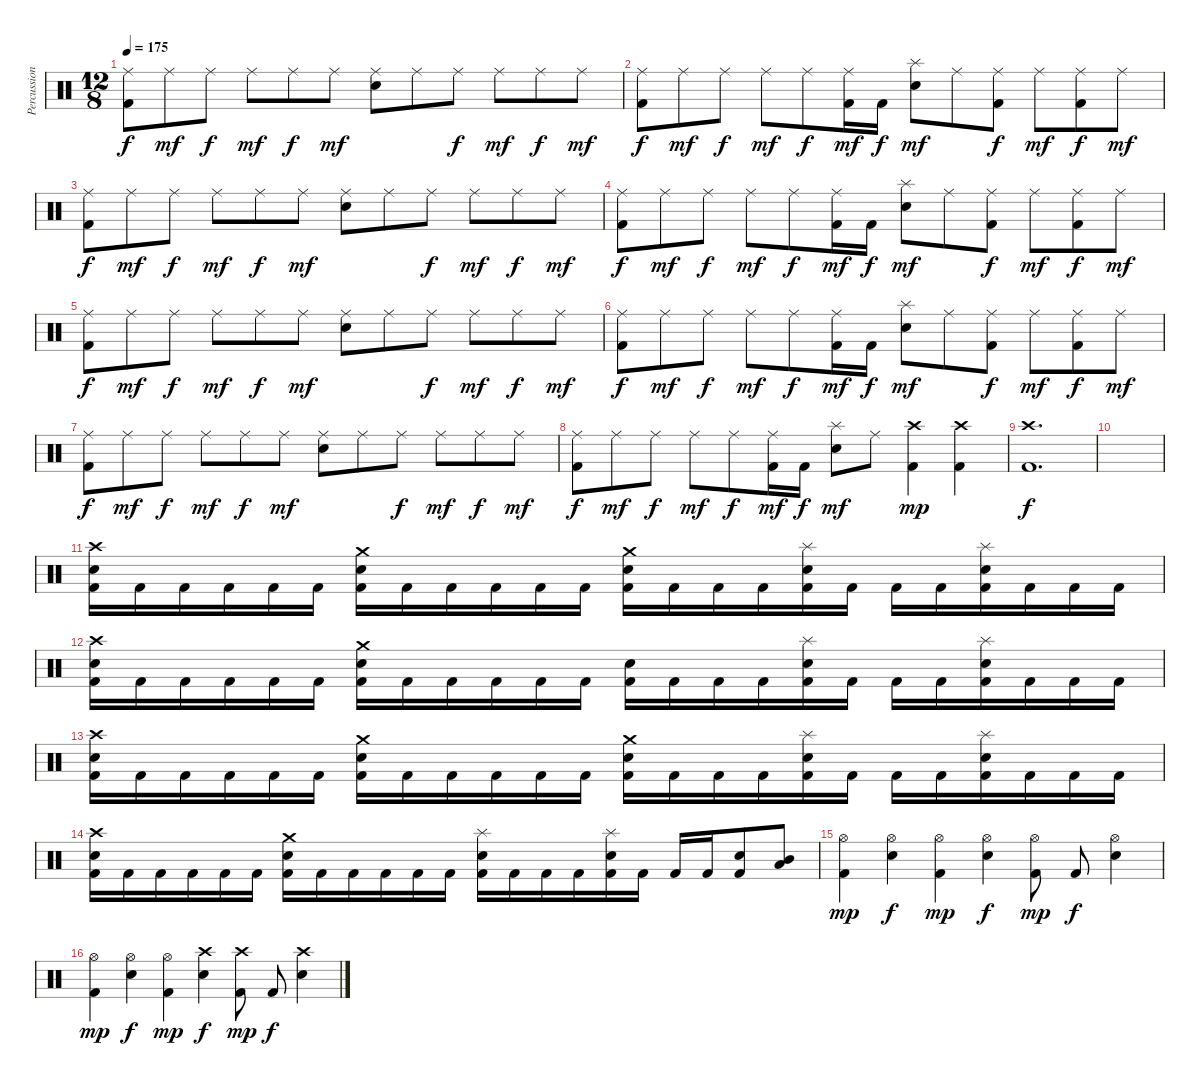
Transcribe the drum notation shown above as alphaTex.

\track ("Percussion" "Percussion") {instrument percussion}
\staff {score}
\articulation defaults
\ts (12 8)
\tempo 175
\clef neutral
\ks c
("Ride (middle)" "Kick (hit) 2").8{dy f} "Ride (middle)".8{dy mf} "Ride (middle)".8{dy f} "Ride (middle)".8{dy mf} "Ride (middle)".8{dy f} "Ride (middle)".8{dy mf} ("Ride (middle)" "Electric Snare (hit)").8 "Ride (middle)".8 "Ride (middle)".8{dy f} "Ride (middle)".8{dy mf} "Ride (middle)".8{dy f} "Ride (middle)".8{dy mf} |
("Ride (middle)" "Kick (hit) 2").8{dy f} "Ride (middle)".8{dy mf} "Ride (middle)".8{dy f} "Ride (middle)".8{dy mf} "Ride (middle)".8{dy f} ("Ride (middle)" "Kick (hit) 2").16{dy mf} "Kick (hit) 2".16{dy f} ("Splash (hit)" "Electric Snare (hit)").8{dy mf} "Ride (middle)".8 ("Ride (middle)" "Kick (hit) 2").8{dy f} "Ride (middle)".8{dy mf} ("Ride (middle)" "Kick (hit) 2").8{dy f} "Ride (middle)".8{dy mf} |
("Ride (middle)" "Kick (hit) 2").8{dy f} "Ride (middle)".8{dy mf} "Ride (middle)".8{dy f} "Ride (middle)".8{dy mf} "Ride (middle)".8{dy f} "Ride (middle)".8{dy mf} ("Ride (middle)" "Electric Snare (hit)").8 "Ride (middle)".8 "Ride (middle)".8{dy f} "Ride (middle)".8{dy mf} "Ride (middle)".8{dy f} "Ride (middle)".8{dy mf} |
("Ride (middle)" "Kick (hit) 2").8{dy f} "Ride (middle)".8{dy mf} "Ride (middle)".8{dy f} "Ride (middle)".8{dy mf} "Ride (middle)".8{dy f} ("Ride (middle)" "Kick (hit) 2").16{dy mf} "Kick (hit) 2".16{dy f} ("Splash (hit)" "Electric Snare (hit)").8{dy mf} "Ride (middle)".8 ("Ride (middle)" "Kick (hit) 2").8{dy f} "Ride (middle)".8{dy mf} ("Ride (middle)" "Kick (hit) 2").8{dy f} "Ride (middle)".8{dy mf} |
("Ride (middle)" "Kick (hit) 2").8{dy f} "Ride (middle)".8{dy mf} "Ride (middle)".8{dy f} "Ride (middle)".8{dy mf} "Ride (middle)".8{dy f} "Ride (middle)".8{dy mf} ("Ride (middle)" "Electric Snare (hit)").8 "Ride (middle)".8 "Ride (middle)".8{dy f} "Ride (middle)".8{dy mf} "Ride (middle)".8{dy f} "Ride (middle)".8{dy mf} |
("Ride (middle)" "Kick (hit) 2").8{dy f} "Ride (middle)".8{dy mf} "Ride (middle)".8{dy f} "Ride (middle)".8{dy mf} "Ride (middle)".8{dy f} ("Ride (middle)" "Kick (hit) 2").16{dy mf} "Kick (hit) 2".16{dy f} ("Splash (hit)" "Electric Snare (hit)").8{dy mf} "Ride (middle)".8 ("Ride (middle)" "Kick (hit) 2").8{dy f} "Ride (middle)".8{dy mf} ("Ride (middle)" "Kick (hit) 2").8{dy f} "Ride (middle)".8{dy mf} |
("Ride (middle)" "Kick (hit) 2").8{dy f} "Ride (middle)".8{dy mf} "Ride (middle)".8{dy f} "Ride (middle)".8{dy mf} "Ride (middle)".8{dy f} "Ride (middle)".8{dy mf} ("Ride (middle)" "Electric Snare (hit)").8 "Ride (middle)".8 "Ride (middle)".8{dy f} "Ride (middle)".8{dy mf} "Ride (middle)".8{dy f} "Ride (middle)".8{dy mf} |
("Ride (middle)" "Kick (hit) 2").8{dy f} "Ride (middle)".8{dy mf} "Ride (middle)".8{dy f} "Ride (middle)".8{dy mf} "Ride (middle)".8{dy f} ("Ride (middle)" "Kick (hit) 2").16{dy mf} "Kick (hit) 2".16{dy f} ("Splash (hit)" "Electric Snare (hit)").8{dy mf} "Ride (middle)".8 ("Crash high (hit)" "Kick (hit) 2").4{dy mp} ("Crash high (hit)" "Kick (hit) 2").4 |
("Crash high (hit)" "Kick (hit) 2").1{d dy f} |
|
("Crash high (hit)" "Electric Snare (hit)" "Kick (hit) 2").16 "Kick (hit) 2".16 "Kick (hit) 2".16 "Kick (hit) 2".16 "Kick (hit) 2".16 "Kick (hit) 2".16 ("Crash medium (hit)" "Electric Snare (hit)" "Kick (hit) 2").16 "Kick (hit) 2".16 "Kick (hit) 2".16 "Kick (hit) 2".16 "Kick (hit) 2".16 "Kick (hit) 2".16 ("Crash medium (hit)" "Electric Snare (hit)" "Kick (hit) 2").16 "Kick (hit) 2".16 "Kick (hit) 2".16 "Kick (hit) 2".16 ("Splash (hit)" "Electric Snare (hit)" "Kick (hit) 2").16 "Kick (hit) 2".16 "Kick (hit) 2".16 "Kick (hit) 2".16 ("Splash (hit)" "Electric Snare (hit)" "Kick (hit) 2").16 "Kick (hit) 2".16 "Kick (hit) 2".16 "Kick (hit) 2".16 |
("Crash high (hit)" "Electric Snare (hit)" "Kick (hit) 2").16 "Kick (hit) 2".16 "Kick (hit) 2".16 "Kick (hit) 2".16 "Kick (hit) 2".16 "Kick (hit) 2".16 ("Crash medium (hit)" "Electric Snare (hit)" "Kick (hit) 2").16 "Kick (hit) 2".16 "Kick (hit) 2".16 "Kick (hit) 2".16 "Kick (hit) 2".16 "Kick (hit) 2".16 ("Electric Snare (hit)" "Kick (hit) 2").16 "Kick (hit) 2".16 "Kick (hit) 2".16 "Kick (hit) 2".16 ("Splash (hit)" "Electric Snare (hit)" "Kick (hit) 2").16 "Kick (hit) 2".16 "Kick (hit) 2".16 "Kick (hit) 2".16 ("Splash (hit)" "Electric Snare (hit)" "Kick (hit) 2").16 "Kick (hit) 2".16 "Kick (hit) 2".16 "Kick (hit) 2".16 |
("Crash high (hit)" "Electric Snare (hit)" "Kick (hit) 2").16 "Kick (hit) 2".16 "Kick (hit) 2".16 "Kick (hit) 2".16 "Kick (hit) 2".16 "Kick (hit) 2".16 ("Crash medium (hit)" "Electric Snare (hit)" "Kick (hit) 2").16 "Kick (hit) 2".16 "Kick (hit) 2".16 "Kick (hit) 2".16 "Kick (hit) 2".16 "Kick (hit) 2".16 ("Crash medium (hit)" "Electric Snare (hit)" "Kick (hit) 2").16 "Kick (hit) 2".16 "Kick (hit) 2".16 "Kick (hit) 2".16 ("Splash (hit)" "Electric Snare (hit)" "Kick (hit) 2").16 "Kick (hit) 2".16 "Kick (hit) 2".16 "Kick (hit) 2".16 ("Splash (hit)" "Electric Snare (hit)" "Kick (hit) 2").16 "Kick (hit) 2".16 "Kick (hit) 2".16 "Kick (hit) 2".16 |
("Crash high (hit)" "Electric Snare (hit)" "Kick (hit) 2").16 "Kick (hit) 2".16 "Kick (hit) 2".16 "Kick (hit) 2".16 "Kick (hit) 2".16 "Kick (hit) 2".16 ("Crash medium (hit)" "Electric Snare (hit)" "Kick (hit) 2").16 "Kick (hit) 2".16 "Kick (hit) 2".16 "Kick (hit) 2".16 "Kick (hit) 2".16 "Kick (hit) 2".16 ("Splash (hit)" "Electric Snare (hit)" "Kick (hit) 2").16 "Kick (hit) 2".16 "Kick (hit) 2".16 "Kick (hit) 2".16 ("Splash (hit)" "Electric Snare (hit)" "Kick (hit) 2").16 "Kick (hit) 2".16 "Kick (hit) 2".16 "Kick (hit) 2".16 ("Electric Snare (hit)" "Kick (hit) 2").8 ("Mid Tom (hit)" "Low Tom (hit)").8 |
("Hi-Hat (open)" "Kick (hit) 2").4{dy mp} ("Hi-Hat (open)" "Electric Snare (hit)").4{dy f} ("Hi-Hat (open)" "Kick (hit) 2").4{dy mp} ("Hi-Hat (open)" "Electric Snare (hit)").4{dy f} ("Hi-Hat (open)" "Kick (hit) 2").8{dy mp} "Kick (hit) 2".8{dy f} ("Hi-Hat (open)" "Electric Snare (hit)").4 |
("Hi-Hat (open)" "Kick (hit) 2").4{dy mp} ("Hi-Hat (open)" "Electric Snare (hit)").4{dy f} ("Hi-Hat (open)" "Kick (hit) 2").4{dy mp} ("Crash high (hit)" "Electric Snare (hit)").4{dy f} ("Crash high (hit)" "Kick (hit) 2").8{dy mp} "Kick (hit) 2".8{dy f} ("Crash high (hit)" "Electric Snare (hit)").4
